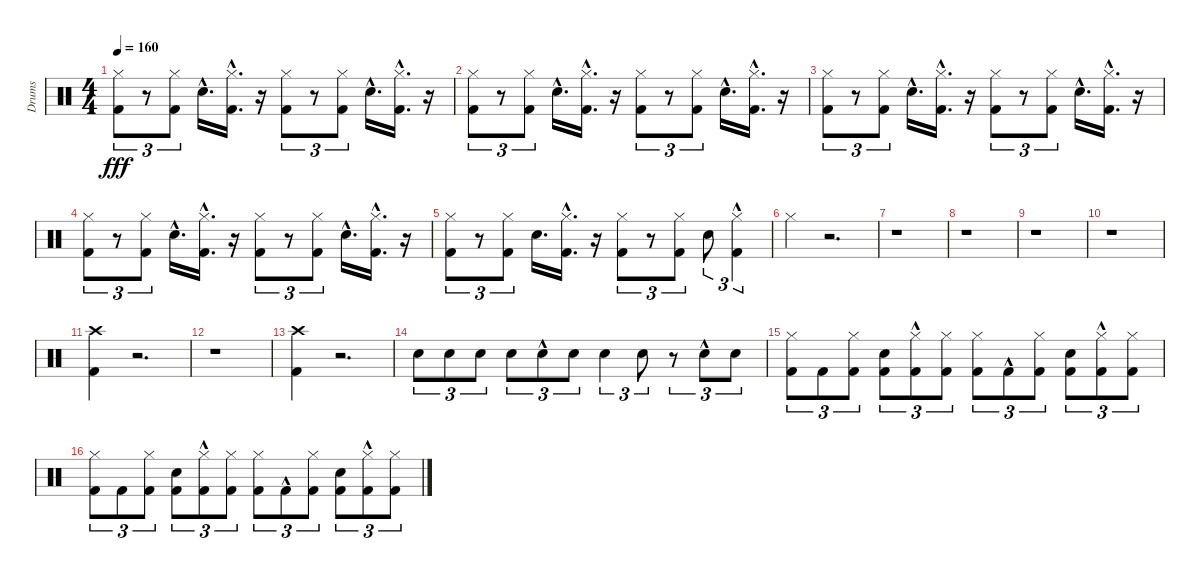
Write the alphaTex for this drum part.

\track ("Drums" "Drums") {instrument percussion}
\staff {score}
\articulation defaults
\ts (4 4)
\tempo 160
\clef neutral
\ks c
("Kick (hit) 2" "Hi-Hat (closed)").8{tu (3 2) dy fff} r.8{tu (3 2)} ("Kick (hit) 2" "Hi-Hat (closed)").8{tu (3 2)} "Snare (hit) 2"{hac}.16{d} ("Kick (hit) 2"{hac} "Hi-Hat (closed)"{hac}).16{d} r.16 ("Kick (hit) 2" "Hi-Hat (closed)").8{tu (3 2)} r.8{tu (3 2)} ("Kick (hit) 2" "Hi-Hat (closed)").8{tu (3 2)} "Snare (hit) 2"{hac}.16{d} ("Kick (hit) 2"{hac} "Hi-Hat (closed)"{hac}).16{d} r.16 |
("Kick (hit) 2" "Hi-Hat (closed)").8{tu (3 2)} r.8{tu (3 2)} ("Kick (hit) 2" "Hi-Hat (closed)").8{tu (3 2)} "Snare (hit) 2"{hac}.16{d} ("Kick (hit) 2"{hac} "Hi-Hat (closed)"{hac}).16{d} r.16 ("Kick (hit) 2" "Hi-Hat (closed)").8{tu (3 2)} r.8{tu (3 2)} ("Kick (hit) 2" "Hi-Hat (closed)").8{tu (3 2)} "Snare (hit) 2"{hac}.16{d} ("Kick (hit) 2"{hac} "Hi-Hat (closed)"{hac}).16{d} r.16 |
("Kick (hit) 2" "Hi-Hat (closed)").8{tu (3 2)} r.8{tu (3 2)} ("Kick (hit) 2" "Hi-Hat (closed)").8{tu (3 2)} "Snare (hit) 2"{hac}.16{d} ("Kick (hit) 2"{hac} "Hi-Hat (closed)"{hac}).16{d} r.16 ("Kick (hit) 2" "Hi-Hat (closed)").8{tu (3 2)} r.8{tu (3 2)} ("Kick (hit) 2" "Hi-Hat (closed)").8{tu (3 2)} "Snare (hit) 2"{hac}.16{d} ("Kick (hit) 2"{hac} "Hi-Hat (closed)"{hac}).16{d} r.16 |
("Kick (hit) 2" "Hi-Hat (closed)").8{tu (3 2)} r.8{tu (3 2)} ("Kick (hit) 2" "Hi-Hat (closed)").8{tu (3 2)} "Snare (hit) 2"{hac}.16{d} ("Kick (hit) 2"{hac} "Hi-Hat (closed)"{hac}).16{d} r.16 ("Kick (hit) 2" "Hi-Hat (closed)").8{tu (3 2)} r.8{tu (3 2)} ("Kick (hit) 2" "Hi-Hat (closed)").8{tu (3 2)} "Snare (hit) 2"{hac}.16{d} ("Kick (hit) 2"{hac} "Hi-Hat (closed)"{hac}).16{d} r.16 |
("Kick (hit) 2" "Hi-Hat (closed)").8{tu (3 2)} r.8{tu (3 2)} ("Kick (hit) 2" "Hi-Hat (closed)").8{tu (3 2)} "Snare (hit) 2".16{d} ("Kick (hit) 2"{hac} "Hi-Hat (closed)"{hac}).16{d} r.16 ("Kick (hit) 2" "Hi-Hat (closed)").8{tu (3 2)} r.8{tu (3 2)} ("Kick (hit) 2" "Hi-Hat (closed)").8{tu (3 2)} "Snare (hit) 2".8{tu (3 2)} ("Kick (hit) 2" "Hi-Hat (closed)"{hac}).4{tu (3 2)} |
"Hi-Hat (closed)".4 r.2{d} |
r.1 |
r.1 |
r.1 |
r.1 |
("Kick (hit) 2" "Crash high (hit)").4 r.2{d} |
r.1 |
("Kick (hit) 2" "Crash high (hit)").4 r.2{d} |
"Snare (hit) 2".8{tu (3 2)} "Snare (hit) 2".8{tu (3 2)} "Snare (hit) 2".8{tu (3 2)} "Snare (hit) 2".8{tu (3 2)} "Snare (hit) 2"{hac}.8{tu (3 2)} "Snare (hit) 2".8{tu (3 2)} "Snare (hit) 2".4{tu (3 2)} "Snare (hit) 2".8{tu (3 2)} r.8{tu (3 2)} "Snare (hit) 2"{hac}.8{tu (3 2)} "Snare (hit) 2".8{tu (3 2)} |
("Kick (hit) 2" "Hi-Hat (closed)").8{tu (3 2)} "Kick (hit) 2".8{tu (3 2)} ("Kick (hit) 2" "Hi-Hat (closed)").8{tu (3 2)} ("Kick (hit) 2" "Snare (hit) 2").8{tu (3 2)} ("Kick (hit) 2"{hac} "Hi-Hat (closed)"{hac}).8{tu (3 2)} ("Kick (hit) 2" "Hi-Hat (closed)").8{tu (3 2)} ("Kick (hit) 2" "Hi-Hat (closed)").8{tu (3 2)} "Kick (hit) 2"{hac}.8{tu (3 2)} ("Kick (hit) 2" "Hi-Hat (closed)").8{tu (3 2)} ("Kick (hit) 2" "Snare (hit) 2").8{tu (3 2)} ("Kick (hit) 2"{hac} "Hi-Hat (closed)"{hac}).8{tu (3 2)} ("Kick (hit) 2" "Hi-Hat (closed)").8{tu (3 2)} |
("Kick (hit) 2" "Hi-Hat (closed)").8{tu (3 2)} "Kick (hit) 2".8{tu (3 2)} ("Kick (hit) 2" "Hi-Hat (closed)").8{tu (3 2)} ("Kick (hit) 2" "Snare (hit) 2").8{tu (3 2)} ("Kick (hit) 2"{hac} "Hi-Hat (closed)"{hac}).8{tu (3 2)} ("Kick (hit) 2" "Hi-Hat (closed)").8{tu (3 2)} ("Kick (hit) 2" "Hi-Hat (closed)").8{tu (3 2)} "Kick (hit) 2"{hac}.8{tu (3 2)} ("Kick (hit) 2" "Hi-Hat (closed)").8{tu (3 2)} ("Kick (hit) 2" "Snare (hit) 2").8{tu (3 2)} ("Kick (hit) 2"{hac} "Hi-Hat (closed)"{hac}).8{tu (3 2)} ("Kick (hit) 2" "Hi-Hat (closed)").8{tu (3 2)}
